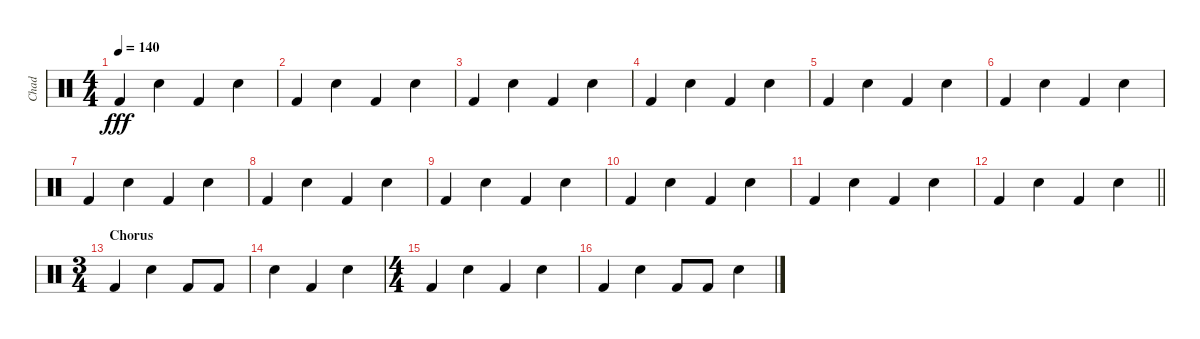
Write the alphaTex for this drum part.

\track ("Chad" "Chad") {instrument percussion}
\staff {score}
\articulation defaults
\ts (4 4)
\tempo 140
\clef neutral
\ks c "Kick (hit) 2".4{dy fff} "Electric Snare (hit)".4 "Kick (hit) 2".4 "Electric Snare (hit)".4
|
"Kick (hit) 2".4 "Electric Snare (hit)".4 "Kick (hit) 2".4 "Electric Snare (hit)".4 |
"Kick (hit) 2".4 "Electric Snare (hit)".4 "Kick (hit) 2".4 "Electric Snare (hit)".4 |
"Kick (hit) 2".4 "Electric Snare (hit)".4 "Kick (hit) 2".4 "Electric Snare (hit)".4 |
"Kick (hit) 2".4 "Electric Snare (hit)".4 "Kick (hit) 2".4 "Electric Snare (hit)".4 |
"Kick (hit) 2".4 "Electric Snare (hit)".4 "Kick (hit) 2".4 "Electric Snare (hit)".4 |
"Kick (hit) 2".4 "Electric Snare (hit)".4 "Kick (hit) 2".4 "Electric Snare (hit)".4 |
"Kick (hit) 2".4 "Electric Snare (hit)".4 "Kick (hit) 2".4 "Electric Snare (hit)".4 |
"Kick (hit) 2".4 "Electric Snare (hit)".4 "Kick (hit) 2".4 "Electric Snare (hit)".4 |
"Kick (hit) 2".4 "Electric Snare (hit)".4 "Kick (hit) 2".4 "Electric Snare (hit)".4 |
"Kick (hit) 2".4 "Electric Snare (hit)".4 "Kick (hit) 2".4 "Electric Snare (hit)".4 |
\barLineRight lightlight "Kick (hit) 2".4 "Electric Snare (hit)".4 "Kick (hit) 2".4 "Electric Snare (hit)".4
|
\ts (3 4)
\section ("" "Chorus")
"Kick (hit) 2".4 "Electric Snare (hit)".4 "Kick (hit) 2".8 "Kick (hit) 2".8 |
"Electric Snare (hit)".4 "Kick (hit) 2".4 "Electric Snare (hit)".4 |
\ts (4 4)
"Kick (hit) 2".4 "Electric Snare (hit)".4 "Kick (hit) 2".4 "Electric Snare (hit)".4 |
"Kick (hit) 2".4 "Electric Snare (hit)".4 "Kick (hit) 2".8 "Kick (hit) 2".8 "Electric Snare (hit)".4
